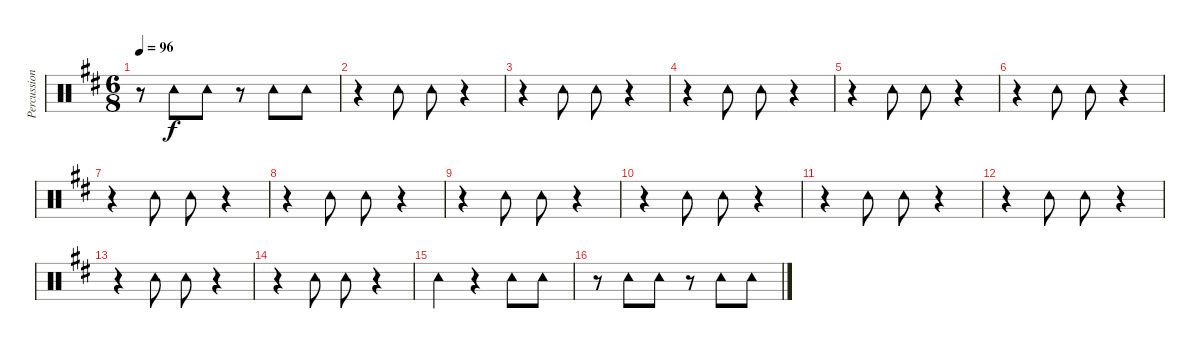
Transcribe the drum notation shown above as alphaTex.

\track ("Percussion" "Percussion") {instrument percussion}
\staff {score}
\articulation defaults
\ts (6 8)
\tempo 96
\clef neutral
\ks bminor
r.8{dy f} "Tambourine (hit)".8 "Tambourine (hit)".8 r.8 "Tambourine (hit)".8 "Tambourine (hit)".8 |
r.4 "Tambourine (hit)".8 "Tambourine (hit)".8 r.4 |
r.4 "Tambourine (hit)".8 "Tambourine (hit)".8 r.4 |
r.4 "Tambourine (hit)".8 "Tambourine (hit)".8 r.4 |
r.4 "Tambourine (hit)".8 "Tambourine (hit)".8 r.4 |
r.4 "Tambourine (hit)".8 "Tambourine (hit)".8 r.4 |
r.4 "Tambourine (hit)".8 "Tambourine (hit)".8 r.4 |
r.4 "Tambourine (hit)".8 "Tambourine (hit)".8 r.4 |
r.4 "Tambourine (hit)".8 "Tambourine (hit)".8 r.4 |
r.4 "Tambourine (hit)".8 "Tambourine (hit)".8 r.4 |
r.4 "Tambourine (hit)".8 "Tambourine (hit)".8 r.4 |
r.4 "Tambourine (hit)".8 "Tambourine (hit)".8 r.4 |
r.4 "Tambourine (hit)".8 "Tambourine (hit)".8 r.4 |
r.4 "Tambourine (hit)".8 "Tambourine (hit)".8 r.4 |
"Tambourine (hit)".4 r.4 "Tambourine (hit)".8 "Tambourine (hit)".8 |
r.8 "Tambourine (hit)".8 "Tambourine (hit)".8 r.8 "Tambourine (hit)".8 "Tambourine (hit)".8
